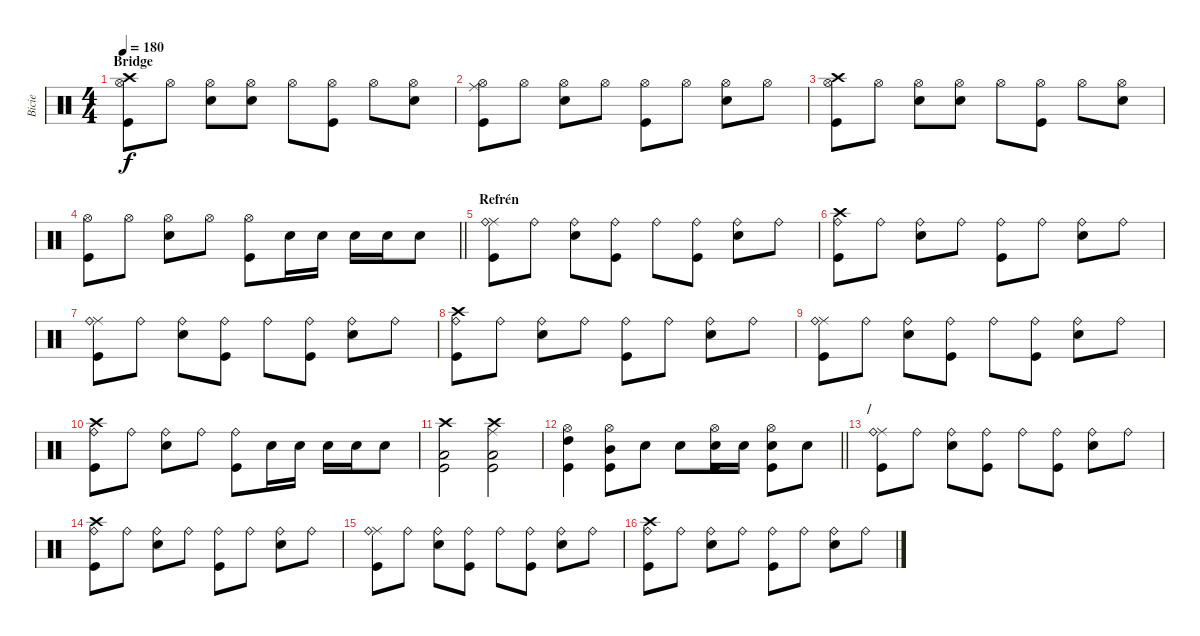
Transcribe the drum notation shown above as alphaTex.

\track ("Bicie" "Bicie") {instrument percussion}
\staff {score}
\articulation defaults
\ts (4 4)
\section ("" "Bridge")
\tempo 180
\clef neutral
\ks c
("Crash high (hit)" "Hi-Hat (open)" "Kick (hit)").8{dy f} "Hi-Hat (open)".8 ("Hi-Hat (open)" "Snare (hit) 2").8 ("Hi-Hat (open)" "Snare (hit) 2").8 "Hi-Hat (open)".8 ("Hi-Hat (open)" "Kick (hit)").8 "Hi-Hat (open)".8 ("Hi-Hat (open)" "Snare (hit) 2").8 |
("Ride (middle)" "Hi-Hat (open)" "Kick (hit)").8 "Hi-Hat (open)".8 ("Hi-Hat (open)" "Snare (hit) 2").8 "Hi-Hat (open)".8 ("Hi-Hat (open)" "Kick (hit)").8 "Hi-Hat (open)".8 ("Hi-Hat (open)" "Snare (hit) 2").8 "Hi-Hat (open)".8 |
("Crash high (hit)" "Hi-Hat (open)" "Kick (hit)").8 "Hi-Hat (open)".8 ("Hi-Hat (open)" "Snare (hit) 2").8 ("Hi-Hat (open)" "Snare (hit) 2").8 "Hi-Hat (open)".8 ("Hi-Hat (open)" "Kick (hit)").8 "Hi-Hat (open)".8 ("Hi-Hat (open)" "Snare (hit) 2").8 |
\barLineRight lightlight
("Hi-Hat (open)" "Kick (hit)").8 "Hi-Hat (open)".8 ("Hi-Hat (open)" "Snare (hit) 2").8 "Hi-Hat (open)".8 ("Hi-Hat (open)" "Kick (hit)").8 "Snare (hit) 2".16 "Snare (hit) 2".16 "Snare (hit) 2".16 "Snare (hit) 2".16 "Snare (hit) 2".8 |
\section ("" "Refrén")
("Ride (middle)" "Ride (bell)" "Kick (hit)").8 "Ride (bell)".8 ("Ride (bell)" "Snare (hit) 2").8 ("Ride (bell)" "Kick (hit)").8 "Ride (bell)".8 ("Ride (bell)" "Kick (hit)").8 ("Ride (bell)" "Snare (hit) 2").8 "Ride (bell)".8 |
("Crash high (hit)" "Ride (bell)" "Kick (hit)").8 "Ride (bell)".8 ("Ride (bell)" "Snare (hit) 2").8 "Ride (bell)".8 ("Ride (bell)" "Kick (hit)").8 "Ride (bell)".8 ("Ride (bell)" "Snare (hit) 2").8 "Ride (bell)".8 |
("Ride (middle)" "Ride (bell)" "Kick (hit)").8 "Ride (bell)".8 ("Ride (bell)" "Snare (hit) 2").8 ("Ride (bell)" "Kick (hit)").8 "Ride (bell)".8 ("Ride (bell)" "Kick (hit)").8 ("Ride (bell)" "Snare (hit) 2").8 "Ride (bell)".8 |
("Crash high (hit)" "Ride (bell)" "Kick (hit)").8 "Ride (bell)".8 ("Ride (bell)" "Snare (hit) 2").8 "Ride (bell)".8 ("Ride (bell)" "Kick (hit)").8 "Ride (bell)".8 ("Ride (bell)" "Snare (hit) 2").8 "Ride (bell)".8 |
("Ride (middle)" "Ride (bell)" "Kick (hit)").8 "Ride (bell)".8 ("Ride (bell)" "Snare (hit) 2").8 ("Ride (bell)" "Kick (hit)").8 "Ride (bell)".8 ("Ride (bell)" "Kick (hit)").8 ("Ride (bell)" "Snare (hit) 2").8 "Ride (bell)".8 |
("Crash high (hit)" "Ride (bell)" "Kick (hit)").8 "Ride (bell)".8 ("Ride (bell)" "Snare (hit) 2").8 "Ride (bell)".8 ("Ride (bell)" "Kick (hit)").8 "Snare (hit) 2".16 "Snare (hit) 2".16 "Snare (hit) 2".16 "Snare (hit) 2".16 "Snare (hit) 2".8 |
("Crash high (hit)" "Low Tom (hit)" "Kick (hit)").2 ("Crash high (hit)" "Ride (middle)" "Low Tom (hit)" "Kick (hit)").2 |
\barLineRight lightlight
("Hi-Hat (open)" "High Tom (hit)" "Kick (hit)").4 ("Hi-Hat (open)" "Mid Tom (hit)" "Kick (hit)").8 "Snare (hit) 2".8 "Snare (hit) 2".8 ("Hi-Hat (open)" "Snare (hit) 2" "Kick (hit)").16 "Snare (hit) 2".16 ("Hi-Hat (open)" "Snare (hit) 2" "Kick (hit)").8 "Snare (hit) 2".8 |
\section ("" "/")
("Ride (middle)" "Ride (bell)" "Kick (hit)").8 "Ride (bell)".8 ("Ride (bell)" "Snare (hit) 2").8 ("Ride (bell)" "Kick (hit)").8 "Ride (bell)".8 ("Ride (bell)" "Kick (hit)").8 ("Ride (bell)" "Snare (hit) 2").8 "Ride (bell)".8 |
("Crash high (hit)" "Ride (bell)" "Kick (hit)").8 "Ride (bell)".8 ("Ride (bell)" "Snare (hit) 2").8 "Ride (bell)".8 ("Ride (bell)" "Kick (hit)").8 "Ride (bell)".8 ("Ride (bell)" "Snare (hit) 2").8 "Ride (bell)".8 |
("Ride (middle)" "Ride (bell)" "Kick (hit)").8 "Ride (bell)".8 ("Ride (bell)" "Snare (hit) 2").8 ("Ride (bell)" "Kick (hit)").8 "Ride (bell)".8 ("Ride (bell)" "Kick (hit)").8 ("Ride (bell)" "Snare (hit) 2").8 "Ride (bell)".8 |
("Crash high (hit)" "Ride (bell)" "Kick (hit)").8 "Ride (bell)".8 ("Ride (bell)" "Snare (hit) 2").8 "Ride (bell)".8 ("Ride (bell)" "Kick (hit)").8 "Ride (bell)".8 ("Ride (bell)" "Snare (hit) 2").8 "Ride (bell)".8
